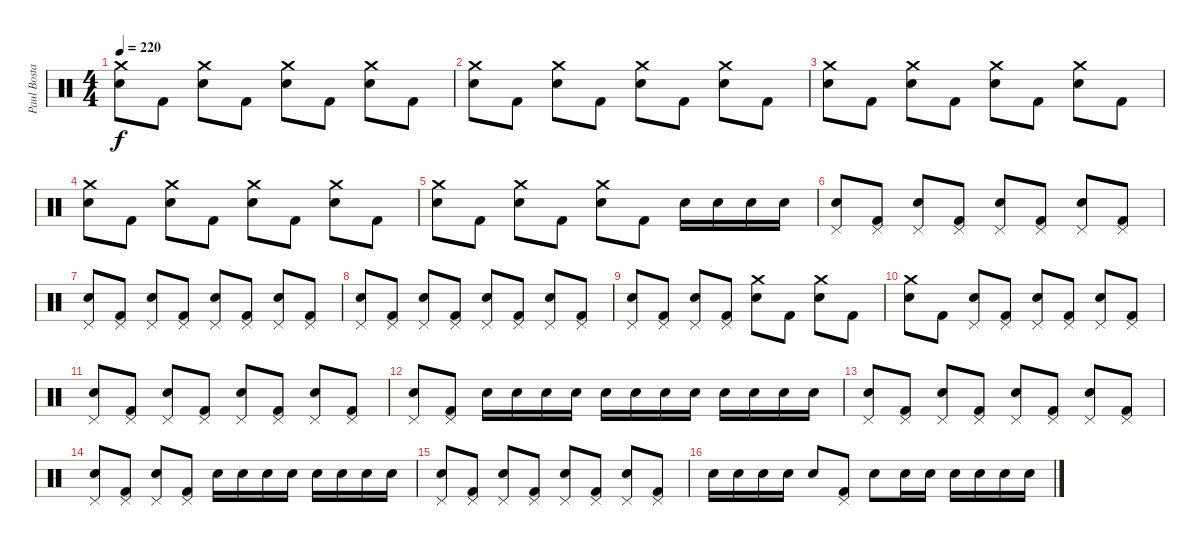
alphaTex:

\track ("Paul Bostaph" "Paul Bosta") {instrument percussion}
\staff {score}
\articulation defaults
\ts (4 4)
\tempo 220
\clef neutral
\ks c
("Snare (hit) 2" "Crash medium (hit)").8{dy f} "Kick (hit) 2".8 ("Snare (hit) 2" "Crash medium (hit)").8 "Kick (hit) 2".8 ("Snare (hit) 2" "Crash medium (hit)").8 "Kick (hit) 2".8 ("Snare (hit) 2" "Crash medium (hit)").8 "Kick (hit) 2".8 |
("Snare (hit) 2" "Crash medium (hit)").8 "Kick (hit) 2".8 ("Snare (hit) 2" "Crash medium (hit)").8 "Kick (hit) 2".8 ("Snare (hit) 2" "Crash medium (hit)").8 "Kick (hit) 2".8 ("Snare (hit) 2" "Crash medium (hit)").8 "Kick (hit) 2".8 |
("Snare (hit) 2" "Crash medium (hit)").8 "Kick (hit) 2".8 ("Snare (hit) 2" "Crash medium (hit)").8 "Kick (hit) 2".8 ("Snare (hit) 2" "Crash medium (hit)").8 "Kick (hit) 2".8 ("Snare (hit) 2" "Crash medium (hit)").8 "Kick (hit) 2".8 |
("Snare (hit) 2" "Crash medium (hit)").8 "Kick (hit) 2".8 ("Snare (hit) 2" "Crash medium (hit)").8 "Kick (hit) 2".8 ("Snare (hit) 2" "Crash medium (hit)").8 "Kick (hit) 2".8 ("Snare (hit) 2" "Crash medium (hit)").8 "Kick (hit) 2".8 |
("Snare (hit) 2" "Crash medium (hit)").8 "Kick (hit) 2".8 ("Snare (hit) 2" "Crash medium (hit)").8 "Kick (hit) 2".8 ("Snare (hit) 2" "Crash medium (hit)").8 "Kick (hit) 2".8 "Snare (hit) 2".16 "Snare (hit) 2".16 "Snare (hit) 2".16 "Snare (hit) 2".16 |
("Snare (hit) 2" "Pedal Hi-Hat (hit)").8 ("Kick (hit) 2" "Pedal Hi-Hat (hit)").8 ("Snare (hit) 2" "Pedal Hi-Hat (hit)").8 ("Kick (hit) 2" "Pedal Hi-Hat (hit)").8 ("Snare (hit) 2" "Pedal Hi-Hat (hit)").8 ("Kick (hit) 2" "Pedal Hi-Hat (hit)").8 ("Snare (hit) 2" "Pedal Hi-Hat (hit)").8 ("Kick (hit) 2" "Pedal Hi-Hat (hit)").8 |
("Snare (hit) 2" "Pedal Hi-Hat (hit)").8 ("Kick (hit) 2" "Pedal Hi-Hat (hit)").8 ("Snare (hit) 2" "Pedal Hi-Hat (hit)").8 ("Kick (hit) 2" "Pedal Hi-Hat (hit)").8 ("Snare (hit) 2" "Pedal Hi-Hat (hit)").8 ("Kick (hit) 2" "Pedal Hi-Hat (hit)").8 ("Snare (hit) 2" "Pedal Hi-Hat (hit)").8 ("Kick (hit) 2" "Pedal Hi-Hat (hit)").8 |
("Snare (hit) 2" "Pedal Hi-Hat (hit)").8 ("Kick (hit) 2" "Pedal Hi-Hat (hit)").8 ("Snare (hit) 2" "Pedal Hi-Hat (hit)").8 ("Kick (hit) 2" "Pedal Hi-Hat (hit)").8 ("Snare (hit) 2" "Pedal Hi-Hat (hit)").8 ("Kick (hit) 2" "Pedal Hi-Hat (hit)").8 ("Snare (hit) 2" "Pedal Hi-Hat (hit)").8 ("Kick (hit) 2" "Pedal Hi-Hat (hit)").8 |
("Snare (hit) 2" "Pedal Hi-Hat (hit)").8 ("Kick (hit) 2" "Pedal Hi-Hat (hit)").8 ("Snare (hit) 2" "Pedal Hi-Hat (hit)").8 ("Kick (hit) 2" "Pedal Hi-Hat (hit)").8 ("Snare (hit) 2" "Crash medium (hit)").8 "Kick (hit) 2".8 ("Snare (hit) 2" "Crash medium (hit)").8 "Kick (hit) 2".8 |
("Snare (hit) 2" "Crash medium (hit)").8 "Kick (hit) 2".8 ("Snare (hit) 2" "Pedal Hi-Hat (hit)").8 ("Kick (hit) 2" "Pedal Hi-Hat (hit)").8 ("Snare (hit) 2" "Pedal Hi-Hat (hit)").8 ("Kick (hit) 2" "Pedal Hi-Hat (hit)").8 ("Snare (hit) 2" "Pedal Hi-Hat (hit)").8 ("Kick (hit) 2" "Pedal Hi-Hat (hit)").8 |
("Snare (hit) 2" "Pedal Hi-Hat (hit)").8 ("Kick (hit) 2" "Pedal Hi-Hat (hit)").8 ("Snare (hit) 2" "Pedal Hi-Hat (hit)").8 ("Kick (hit) 2" "Pedal Hi-Hat (hit)").8 ("Snare (hit) 2" "Pedal Hi-Hat (hit)").8 ("Kick (hit) 2" "Pedal Hi-Hat (hit)").8 ("Snare (hit) 2" "Pedal Hi-Hat (hit)").8 ("Kick (hit) 2" "Pedal Hi-Hat (hit)").8 |
("Snare (hit) 2" "Pedal Hi-Hat (hit)").8 ("Kick (hit) 2" "Pedal Hi-Hat (hit)").8 "Snare (hit) 2".16 "Snare (hit) 2".16 "Snare (hit) 2".16 "Snare (hit) 2".16 "Snare (hit) 2".16 "Snare (hit) 2".16 "Snare (hit) 2".16 "Snare (hit) 2".16 "Snare (hit) 2".16 "Snare (hit) 2".16 "Snare (hit) 2".16 "Snare (hit) 2".16 |
("Snare (hit) 2" "Pedal Hi-Hat (hit)").8 ("Kick (hit) 2" "Pedal Hi-Hat (hit)").8 ("Snare (hit) 2" "Pedal Hi-Hat (hit)").8 ("Kick (hit) 2" "Pedal Hi-Hat (hit)").8 ("Snare (hit) 2" "Pedal Hi-Hat (hit)").8 ("Kick (hit) 2" "Pedal Hi-Hat (hit)").8 ("Snare (hit) 2" "Pedal Hi-Hat (hit)").8 ("Kick (hit) 2" "Pedal Hi-Hat (hit)").8 |
("Snare (hit) 2" "Pedal Hi-Hat (hit)").8 ("Kick (hit) 2" "Pedal Hi-Hat (hit)").8 ("Snare (hit) 2" "Pedal Hi-Hat (hit)").8 ("Kick (hit) 2" "Pedal Hi-Hat (hit)").8 "Snare (hit) 2".16 "Snare (hit) 2".16 "Snare (hit) 2".16 "Snare (hit) 2".16 "Snare (hit) 2".16 "Snare (hit) 2".16 "Snare (hit) 2".16 "Snare (hit) 2".16 |
("Snare (hit) 2" "Pedal Hi-Hat (hit)").8 ("Kick (hit) 2" "Pedal Hi-Hat (hit)").8 ("Snare (hit) 2" "Pedal Hi-Hat (hit)").8 ("Kick (hit) 2" "Pedal Hi-Hat (hit)").8 ("Snare (hit) 2" "Pedal Hi-Hat (hit)").8 ("Kick (hit) 2" "Pedal Hi-Hat (hit)").8 ("Snare (hit) 2" "Pedal Hi-Hat (hit)").8 ("Kick (hit) 2" "Pedal Hi-Hat (hit)").8 |
"Snare (hit) 2".16 "Snare (hit) 2".16 "Snare (hit) 2".16 "Snare (hit) 2".16 "Snare (hit) 2".8 ("Kick (hit) 2" "Pedal Hi-Hat (hit)").8 "Snare (hit) 2".8 "Snare (hit) 2".16 "Snare (hit) 2".16 "Snare (hit) 2".16 "Snare (hit) 2".16 "Snare (hit) 2".16 "Snare (hit) 2".16
